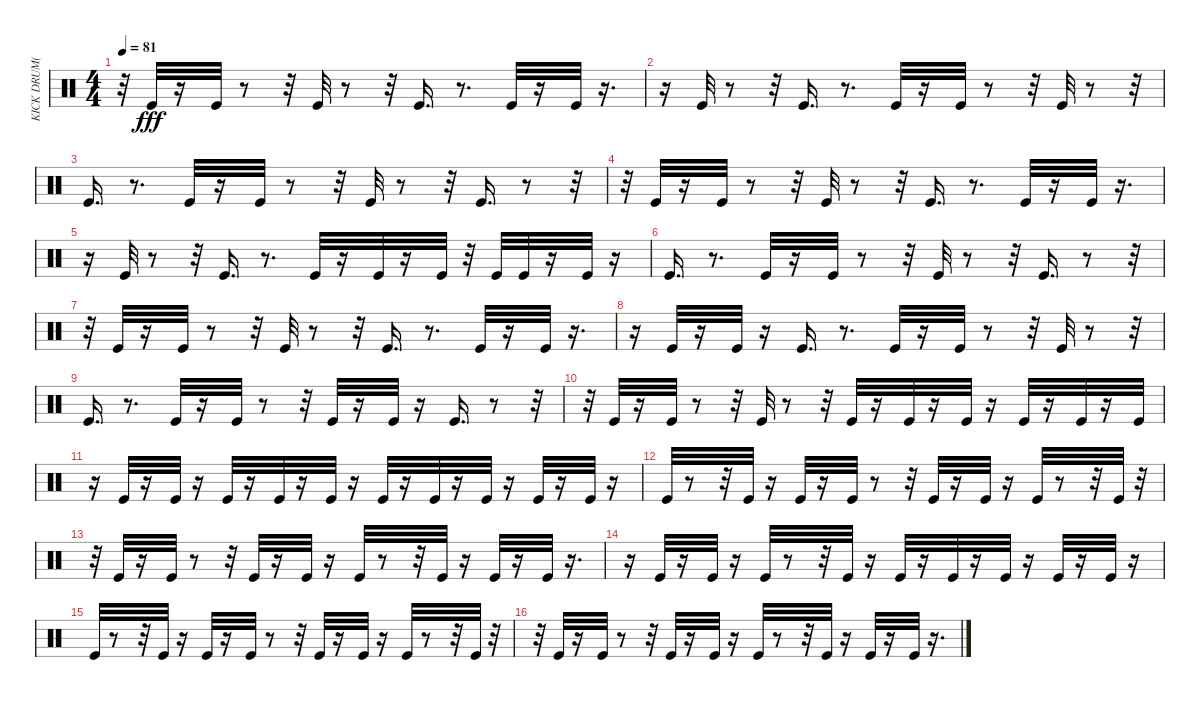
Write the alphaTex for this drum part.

\track ("KICK DRUM(ACOU)" "KICK DRUM(") {instrument percussion}
\staff {score}
\articulation defaults
\ts (4 4)
\tempo 81
\clef neutral
\ks c
r.32{dy fff} "Kick (hit)".32 r.16 "Kick (hit)".32 r.8 r.32 "Kick (hit)".32 r.8 r.32 "Kick (hit)".16{d} r.8{d} "Kick (hit)".32 r.16 "Kick (hit)".32 r.16{d} |
r.16 "Kick (hit)".32 r.8 r.32 "Kick (hit)".16{d} r.8{d} "Kick (hit)".32 r.16 "Kick (hit)".32 r.8 r.32 "Kick (hit)".32 r.8 r.32 |
"Kick (hit)".16{d} r.8{d} "Kick (hit)".32 r.16 "Kick (hit)".32 r.8 r.32 "Kick (hit)".32 r.8 r.32 "Kick (hit)".16{d} r.8 r.32 |
r.32 "Kick (hit)".32 r.16 "Kick (hit)".32 r.8 r.32 "Kick (hit)".32 r.8 r.32 "Kick (hit)".16{d} r.8{d} "Kick (hit)".32 r.16 "Kick (hit)".32 r.16{d} |
r.16 "Kick (hit)".32 r.8 r.32 "Kick (hit)".16{d} r.8{d} "Kick (hit)".32 r.16 "Kick (hit)".32 r.16 "Kick (hit)".32 r.32 "Kick (hit)".32 "Kick (hit)".32 r.16 "Kick (hit)".32 r.16 |
"Kick (hit)".16{d} r.8{d} "Kick (hit)".32 r.16 "Kick (hit)".32 r.8 r.32 "Kick (hit)".32 r.8 r.32 "Kick (hit)".16{d} r.8 r.32 |
r.32 "Kick (hit)".32 r.16 "Kick (hit)".32 r.8 r.32 "Kick (hit)".32 r.8 r.32 "Kick (hit)".16{d} r.8{d} "Kick (hit)".32 r.16 "Kick (hit)".32 r.16{d} |
r.16 "Kick (hit)".32 r.16 "Kick (hit)".32 r.16 "Kick (hit)".16{d} r.8{d} "Kick (hit)".32 r.16 "Kick (hit)".32 r.8 r.32 "Kick (hit)".32 r.8 r.32 |
"Kick (hit)".16{d} r.8{d} "Kick (hit)".32 r.16 "Kick (hit)".32 r.8 r.32 "Kick (hit)".32 r.16 "Kick (hit)".32 r.16 "Kick (hit)".16{d} r.8 r.32 |
r.32 "Kick (hit)".32 r.16 "Kick (hit)".32 r.8 r.32 "Kick (hit)".32 r.8 r.32 "Kick (hit)".32 r.16 "Kick (hit)".32 r.16 "Kick (hit)".32 r.16 "Kick (hit)".32 r.16 "Kick (hit)".32 r.16 "Kick (hit)".32 |
r.16 "Kick (hit)".32 r.16 "Kick (hit)".32 r.16 "Kick (hit)".32 r.16 "Kick (hit)".32 r.16 "Kick (hit)".32 r.16 "Kick (hit)".32 r.16 "Kick (hit)".32 r.16 "Kick (hit)".32 r.16 "Kick (hit)".32 r.16 "Kick (hit)".32 r.16 |
"Kick (hit)".32 r.8 r.32 "Kick (hit)".32 r.16 "Kick (hit)".32 r.16 "Kick (hit)".32 r.8 r.32 "Kick (hit)".32 r.16 "Kick (hit)".32 r.16 "Kick (hit)".32 r.8 r.32 "Kick (hit)".32 r.32 |
r.32 "Kick (hit)".32 r.16 "Kick (hit)".32 r.8 r.32 "Kick (hit)".32 r.16 "Kick (hit)".32 r.16 "Kick (hit)".32 r.8 r.32 "Kick (hit)".32 r.16 "Kick (hit)".32 r.16 "Kick (hit)".32 r.16{d} |
r.16 "Kick (hit)".32 r.16 "Kick (hit)".32 r.16 "Kick (hit)".32 r.8 r.32 "Kick (hit)".32 r.16 "Kick (hit)".32 r.16 "Kick (hit)".32 r.16 "Kick (hit)".32 r.16 "Kick (hit)".32 r.16 "Kick (hit)".32 r.16 |
"Kick (hit)".32 r.8 r.32 "Kick (hit)".32 r.16 "Kick (hit)".32 r.16 "Kick (hit)".32 r.8 r.32 "Kick (hit)".32 r.16 "Kick (hit)".32 r.16 "Kick (hit)".32 r.8 r.32 "Kick (hit)".32 r.32 |
r.32 "Kick (hit)".32 r.16 "Kick (hit)".32 r.8 r.32 "Kick (hit)".32 r.16 "Kick (hit)".32 r.16 "Kick (hit)".32 r.8 r.32 "Kick (hit)".32 r.16 "Kick (hit)".32 r.16 "Kick (hit)".32 r.16{d}
